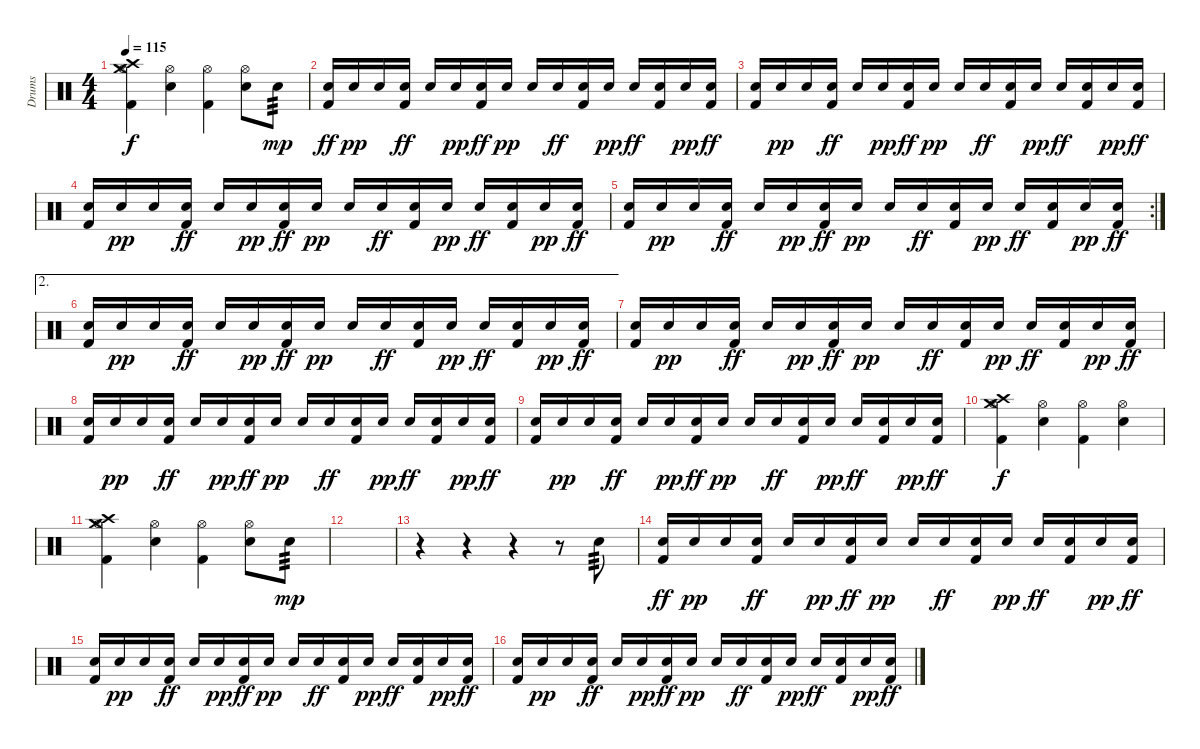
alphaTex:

\track ("Drums" "Drums") {instrument percussion}
\staff {score}
\articulation defaults
\ts (4 4)
\tempo 115
\clef neutral
\ks c
("Crash medium (hit)" "Crash high (hit)" "Hi-Hat (open)" "Kick (hit) 2").4{dy f} ("Hi-Hat (open)" "Snare (hit) 2").4 ("Hi-Hat (open)" "Kick (hit) 2").4 ("Hi-Hat (open)" "Snare (hit) 2").8 "Snare (hit) 2".8{tp 3 dy mp} |
("Snare (hit) 2" "Kick (hit) 2").16{dy ff} "Snare (hit) 2".16{dy pp} "Snare (hit) 2".16 ("Snare (hit) 2" "Kick (hit) 2").16{dy ff} "Snare (hit) 2".16 "Snare (hit) 2".16{dy pp} ("Snare (hit) 2" "Kick (hit) 2").16{dy ff} "Snare (hit) 2".16{dy pp} "Snare (hit) 2".16 "Snare (hit) 2".16{dy ff} ("Snare (hit) 2" "Kick (hit) 2").16 "Snare (hit) 2".16{dy pp} "Snare (hit) 2".16{dy ff} ("Snare (hit) 2" "Kick (hit) 2").16 "Snare (hit) 2".16{dy pp} ("Snare (hit) 2" "Kick (hit) 2").16{dy ff} |
("Snare (hit) 2" "Kick (hit) 2").16 "Snare (hit) 2".16{dy pp} "Snare (hit) 2".16 ("Snare (hit) 2" "Kick (hit) 2").16{dy ff} "Snare (hit) 2".16 "Snare (hit) 2".16{dy pp} ("Snare (hit) 2" "Kick (hit) 2").16{dy ff} "Snare (hit) 2".16{dy pp} "Snare (hit) 2".16 "Snare (hit) 2".16{dy ff} ("Snare (hit) 2" "Kick (hit) 2").16 "Snare (hit) 2".16{dy pp} "Snare (hit) 2".16{dy ff} ("Snare (hit) 2" "Kick (hit) 2").16 "Snare (hit) 2".16{dy pp} ("Snare (hit) 2" "Kick (hit) 2").16{dy ff} |
("Snare (hit) 2" "Kick (hit) 2").16 "Snare (hit) 2".16{dy pp} "Snare (hit) 2".16 ("Snare (hit) 2" "Kick (hit) 2").16{dy ff} "Snare (hit) 2".16 "Snare (hit) 2".16{dy pp} ("Snare (hit) 2" "Kick (hit) 2").16{dy ff} "Snare (hit) 2".16{dy pp} "Snare (hit) 2".16 "Snare (hit) 2".16{dy ff} ("Snare (hit) 2" "Kick (hit) 2").16 "Snare (hit) 2".16{dy pp} "Snare (hit) 2".16{dy ff} ("Snare (hit) 2" "Kick (hit) 2").16 "Snare (hit) 2".16{dy pp} ("Snare (hit) 2" "Kick (hit) 2").16{dy ff} |
\rc 2
("Snare (hit) 2" "Kick (hit) 2").16 "Snare (hit) 2".16{dy pp} "Snare (hit) 2".16 ("Snare (hit) 2" "Kick (hit) 2").16{dy ff} "Snare (hit) 2".16 "Snare (hit) 2".16{dy pp} ("Snare (hit) 2" "Kick (hit) 2").16{dy ff} "Snare (hit) 2".16{dy pp} "Snare (hit) 2".16 "Snare (hit) 2".16{dy ff} ("Snare (hit) 2" "Kick (hit) 2").16 "Snare (hit) 2".16{dy pp} "Snare (hit) 2".16{dy ff} ("Snare (hit) 2" "Kick (hit) 2").16 "Snare (hit) 2".16{dy pp} ("Snare (hit) 2" "Kick (hit) 2").16{dy ff} |
\ae 2
("Snare (hit) 2" "Kick (hit) 2").16 "Snare (hit) 2".16{dy pp} "Snare (hit) 2".16 ("Snare (hit) 2" "Kick (hit) 2").16{dy ff} "Snare (hit) 2".16 "Snare (hit) 2".16{dy pp} ("Snare (hit) 2" "Kick (hit) 2").16{dy ff} "Snare (hit) 2".16{dy pp} "Snare (hit) 2".16 "Snare (hit) 2".16{dy ff} ("Snare (hit) 2" "Kick (hit) 2").16 "Snare (hit) 2".16{dy pp} "Snare (hit) 2".16{dy ff} ("Snare (hit) 2" "Kick (hit) 2").16 "Snare (hit) 2".16{dy pp} ("Snare (hit) 2" "Kick (hit) 2").16{dy ff} |
("Snare (hit) 2" "Kick (hit) 2").16 "Snare (hit) 2".16{dy pp} "Snare (hit) 2".16 ("Snare (hit) 2" "Kick (hit) 2").16{dy ff} "Snare (hit) 2".16 "Snare (hit) 2".16{dy pp} ("Snare (hit) 2" "Kick (hit) 2").16{dy ff} "Snare (hit) 2".16{dy pp} "Snare (hit) 2".16 "Snare (hit) 2".16{dy ff} ("Snare (hit) 2" "Kick (hit) 2").16 "Snare (hit) 2".16{dy pp} "Snare (hit) 2".16{dy ff} ("Snare (hit) 2" "Kick (hit) 2").16 "Snare (hit) 2".16{dy pp} ("Snare (hit) 2" "Kick (hit) 2").16{dy ff} |
("Snare (hit) 2" "Kick (hit) 2").16 "Snare (hit) 2".16{dy pp} "Snare (hit) 2".16 ("Snare (hit) 2" "Kick (hit) 2").16{dy ff} "Snare (hit) 2".16 "Snare (hit) 2".16{dy pp} ("Snare (hit) 2" "Kick (hit) 2").16{dy ff} "Snare (hit) 2".16{dy pp} "Snare (hit) 2".16 "Snare (hit) 2".16{dy ff} ("Snare (hit) 2" "Kick (hit) 2").16 "Snare (hit) 2".16{dy pp} "Snare (hit) 2".16{dy ff} ("Snare (hit) 2" "Kick (hit) 2").16 "Snare (hit) 2".16{dy pp} ("Snare (hit) 2" "Kick (hit) 2").16{dy ff} |
("Snare (hit) 2" "Kick (hit) 2").16 "Snare (hit) 2".16{dy pp} "Snare (hit) 2".16 ("Snare (hit) 2" "Kick (hit) 2").16{dy ff} "Snare (hit) 2".16 "Snare (hit) 2".16{dy pp} ("Snare (hit) 2" "Kick (hit) 2").16{dy ff} "Snare (hit) 2".16{dy pp} "Snare (hit) 2".16 "Snare (hit) 2".16{dy ff} ("Snare (hit) 2" "Kick (hit) 2").16 "Snare (hit) 2".16{dy pp} "Snare (hit) 2".16{dy ff} ("Snare (hit) 2" "Kick (hit) 2").16 "Snare (hit) 2".16{dy pp} ("Snare (hit) 2" "Kick (hit) 2").16{dy ff} |
("Crash medium (hit)" "Crash high (hit)" "Hi-Hat (open)" "Kick (hit) 2").4{dy f} ("Hi-Hat (open)" "Snare (hit) 2").4 ("Hi-Hat (open)" "Kick (hit) 2").4 ("Hi-Hat (open)" "Snare (hit) 2").4 |
("Crash medium (hit)" "Crash high (hit)" "Hi-Hat (open)" "Kick (hit) 2").4 ("Hi-Hat (open)" "Snare (hit) 2").4 ("Hi-Hat (open)" "Kick (hit) 2").4 ("Hi-Hat (open)" "Snare (hit) 2").8 "Snare (hit) 2".8{tp 3 dy mp} |
|
r.4 r.4 r.4 r.8 "Snare (hit) 2".8{tp 3} |
("Snare (hit) 2" "Kick (hit) 2").16{dy ff} "Snare (hit) 2".16{dy pp} "Snare (hit) 2".16 ("Snare (hit) 2" "Kick (hit) 2").16{dy ff} "Snare (hit) 2".16 "Snare (hit) 2".16{dy pp} ("Snare (hit) 2" "Kick (hit) 2").16{dy ff} "Snare (hit) 2".16{dy pp} "Snare (hit) 2".16 "Snare (hit) 2".16{dy ff} ("Snare (hit) 2" "Kick (hit) 2").16 "Snare (hit) 2".16{dy pp} "Snare (hit) 2".16{dy ff} ("Snare (hit) 2" "Kick (hit) 2").16 "Snare (hit) 2".16{dy pp} ("Snare (hit) 2" "Kick (hit) 2").16{dy ff} |
("Snare (hit) 2" "Kick (hit) 2").16 "Snare (hit) 2".16{dy pp} "Snare (hit) 2".16 ("Snare (hit) 2" "Kick (hit) 2").16{dy ff} "Snare (hit) 2".16 "Snare (hit) 2".16{dy pp} ("Snare (hit) 2" "Kick (hit) 2").16{dy ff} "Snare (hit) 2".16{dy pp} "Snare (hit) 2".16 "Snare (hit) 2".16{dy ff} ("Snare (hit) 2" "Kick (hit) 2").16 "Snare (hit) 2".16{dy pp} "Snare (hit) 2".16{dy ff} ("Snare (hit) 2" "Kick (hit) 2").16 "Snare (hit) 2".16{dy pp} ("Snare (hit) 2" "Kick (hit) 2").16{dy ff} |
("Snare (hit) 2" "Kick (hit) 2").16 "Snare (hit) 2".16{dy pp} "Snare (hit) 2".16 ("Snare (hit) 2" "Kick (hit) 2").16{dy ff} "Snare (hit) 2".16 "Snare (hit) 2".16{dy pp} ("Snare (hit) 2" "Kick (hit) 2").16{dy ff} "Snare (hit) 2".16{dy pp} "Snare (hit) 2".16 "Snare (hit) 2".16{dy ff} ("Snare (hit) 2" "Kick (hit) 2").16 "Snare (hit) 2".16{dy pp} "Snare (hit) 2".16{dy ff} ("Snare (hit) 2" "Kick (hit) 2").16 "Snare (hit) 2".16{dy pp} ("Snare (hit) 2" "Kick (hit) 2").16{dy ff}
